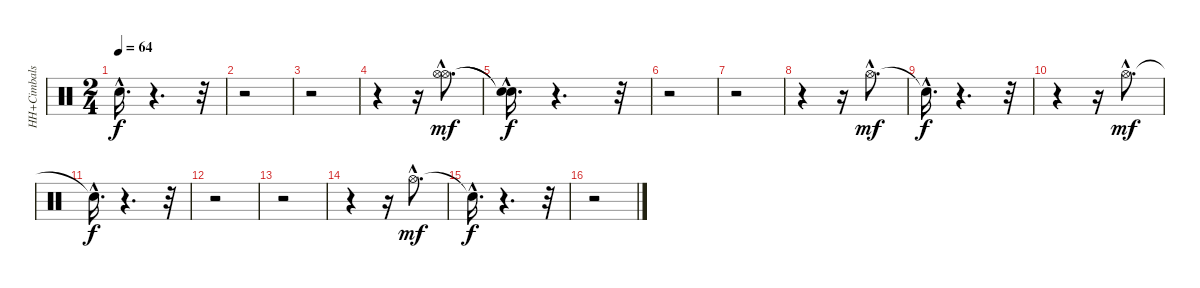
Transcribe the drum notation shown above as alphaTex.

\track ("HH+Cimbals" "HH+Cimbals") {instrument percussion}
\staff {score}
\articulation defaults
\ts (2 4)
\tempo 64
\clef neutral
\ks c "Snare (hit)"{hac t}.16{d dy f}
r.4{d} r.32 |
r.2 |
r.2 |
r.4 r.16 ("Hi-Hat (open)"{hac} "Hi-Hat (open)"{hac}).8{d dy mf} |
("Snare (hit)"{hac t} "Snare (hit)"{hac t}).16{d dy f} r.4{d} r.32 |
r.2 |
r.2 |
r.4 r.16 "Hi-Hat (open)"{hac}.8{d dy mf} |
"Snare (hit)"{hac t}.16{d dy f} r.4{d} r.32 |
r.4 r.16 "Hi-Hat (open)"{hac}.8{d dy mf} |
"Snare (hit)"{hac t}.16{d dy f} r.4{d} r.32 |
r.2 |
r.2 |
r.4 r.16 "Hi-Hat (open)"{hac}.8{d dy mf} |
"Snare (hit)"{hac t}.16{d dy f} r.4{d} r.32 |
r.2
